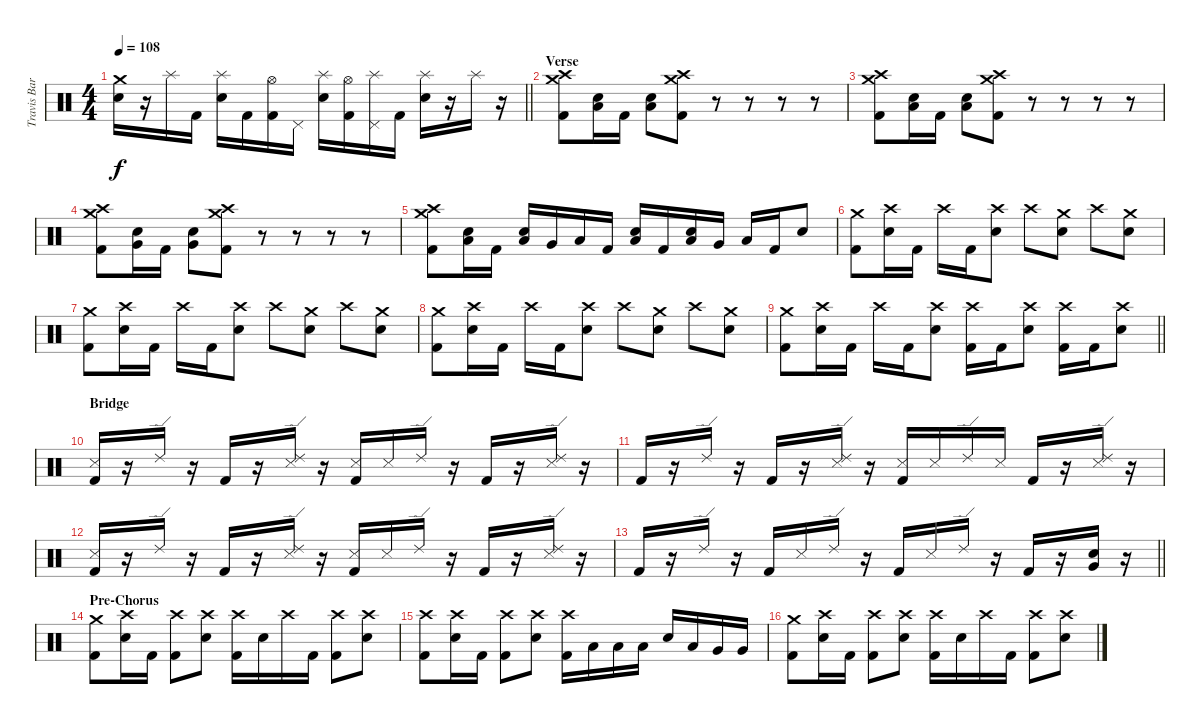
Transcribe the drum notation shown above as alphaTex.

\track ("Travis Barker" "Travis Bar") {instrument percussion}
\staff {score}
\articulation defaults
\ts (4 4)
\tempo 108
\clef neutral
\barLineRight lightlight
\ks c
("Crash medium (hit)" "Electric Snare (hit)").16{dy f} r.16 "Splash (hit)".16 "Kick (hit) 2".16 ("Splash (hit)" "Electric Snare (hit)").16 "Kick (hit) 2".16 ("Hi-Hat (open)" "Kick (hit) 2").16 "Pedal Hi-Hat (hit)".16 ("Splash (hit)" "Electric Snare (hit)").16 ("Hi-Hat (open)" "Kick (hit) 2").16 ("Pedal Hi-Hat (hit)" "Splash (hit)").16 "Kick (hit) 2".16 ("Splash (hit)" "Electric Snare (hit)").16 r.16 "Splash (hit)".16 r.16 |
\section ("" "Verse")
("Crash medium (hit)" "Crash high (hit)" "Kick (hit) 2").8 ("Electric Snare (hit)" "Low Tom (hit)").16 "Kick (hit) 2".16 ("Electric Snare (hit)" "Low Tom (hit)").8 ("Crash medium (hit)" "Crash high (hit)" "Kick (hit) 2").8 r.8 r.8 r.8 r.8 |
("Crash medium (hit)" "Crash high (hit)" "Kick (hit) 2").8 ("Electric Snare (hit)" "Low Tom (hit)").16 "Kick (hit) 2".16 ("Electric Snare (hit)" "Low Tom (hit)").8 ("Crash medium (hit)" "Crash high (hit)" "Kick (hit) 2").8 r.8 r.8 r.8 r.8 |
("Crash medium (hit)" "Crash high (hit)" "Kick (hit) 2").8 ("Electric Snare (hit)" "Very Low Tom (hit)").16 "Kick (hit) 2".16 ("Electric Snare (hit)" "Very Low Tom (hit)").8 ("Crash medium (hit)" "Crash high (hit)" "Kick (hit) 2").8 r.8 r.8 r.8 r.8 |
("Crash medium (hit)" "Crash high (hit)" "Kick (hit) 2").8 ("Electric Snare (hit)" "Low Tom (hit)").16 "Kick (hit) 2".16 ("Electric Snare (hit)" "Low Tom (hit)").16 "Very Low Tom (hit)".16 "Low Floor Tom (hit)".16 "Kick (hit) 2".16 ("Electric Snare (hit)" "Low Tom (hit)").16 "Kick (hit) 2".16 ("Electric Snare (hit)" "Low Tom (hit)").16 "Very Low Tom (hit)".16 "Low Floor Tom (hit)".16 "Kick (hit) 2".16 "Electric Snare (hit)".8 |
("Crash medium (hit)" "Kick (hit) 2").8 ("Crash high (hit)" "Electric Snare (hit)").16 "Kick (hit) 2".16 "Crash high (hit)".16 "Kick (hit) 2".16 ("Crash high (hit)" "Electric Snare (hit)").8 "Crash high (hit)".8 ("Crash medium (hit)" "Electric Snare (hit)").8 "Crash high (hit)".8 ("Crash medium (hit)" "Electric Snare (hit)").8 |
("Crash medium (hit)" "Kick (hit) 2").8 ("Crash high (hit)" "Electric Snare (hit)").16 "Kick (hit) 2".16 "Crash high (hit)".16 "Kick (hit) 2".16 ("Crash high (hit)" "Electric Snare (hit)").8 "Crash high (hit)".8 ("Crash medium (hit)" "Electric Snare (hit)").8 "Crash high (hit)".8 ("Crash medium (hit)" "Electric Snare (hit)").8 |
("Crash medium (hit)" "Kick (hit) 2").8 ("Crash high (hit)" "Electric Snare (hit)").16 "Kick (hit) 2".16 "Crash high (hit)".16 "Kick (hit) 2".16 ("Crash high (hit)" "Electric Snare (hit)").8 "Crash high (hit)".8 ("Crash medium (hit)" "Electric Snare (hit)").8 "Crash high (hit)".8 ("Crash medium (hit)" "Electric Snare (hit)").8 |
\barLineRight lightlight
("Crash medium (hit)" "Kick (hit) 2").8 ("Crash high (hit)" "Electric Snare (hit)").16 "Kick (hit) 2".16 "Crash high (hit)".16 "Kick (hit) 2".16 ("Crash high (hit)" "Electric Snare (hit)").8 ("Crash high (hit)" "Kick (hit) 2").16 "Kick (hit) 2".16 ("Crash high (hit)" "Electric Snare (hit)").8 ("Crash high (hit)" "Kick (hit) 2").16 "Kick (hit) 2".16 ("Crash high (hit)" "Electric Snare (hit)").8 |
\section ("" "Bridge")
("Snare (side stick) 3" "Kick (hit) 2").16 r.16 "Ride (edge) 2".16 r.16 "Kick (hit) 2".16 r.16 ("Ride (edge) 2" "Snare (side stick) 3").16 r.16 ("Snare (side stick) 3" "Kick (hit) 2").16 "Snare (side stick) 3".16 "Ride (edge) 2".16 r.16 "Kick (hit) 2".16 r.16 ("Ride (edge) 2" "Snare (side stick) 3").16 r.16 |
"Kick (hit) 2".16 r.16 "Ride (edge) 2".16 r.16 "Kick (hit) 2".16 r.16 ("Ride (edge) 2" "Snare (side stick) 3").16 r.16 ("Snare (side stick) 3" "Kick (hit) 2").16 "Snare (side stick) 3".16 "Ride (edge) 2".16 "Snare (side stick) 3".16 "Kick (hit) 2".16 r.16 ("Ride (edge) 2" "Snare (side stick) 3").16 r.16 |
("Snare (side stick) 3" "Kick (hit) 2").16 r.16 "Ride (edge) 2".16 r.16 "Kick (hit) 2".16 r.16 ("Ride (edge) 2" "Snare (side stick) 3").16 r.16 ("Snare (side stick) 3" "Kick (hit) 2").16 "Snare (side stick) 3".16 "Ride (edge) 2".16 r.16 "Kick (hit) 2".16 r.16 ("Ride (edge) 2" "Snare (side stick) 3").16 r.16 |
\barLineRight lightlight "Kick (hit) 2".16
r.16 "Ride (edge) 2".16 r.16 "Kick (hit) 2".16 "Snare (side stick) 3".16 "Ride (edge) 2".16 r.16 "Kick (hit) 2".16 "Snare (side stick) 3".16 "Ride (edge) 2".16 r.16 "Kick (hit) 2".16 r.16 ("Electric Snare (hit)" "Very Low Tom (hit)").16 r.16 |
\section ("" "Pre-Chorus")
("Crash medium (hit)" "Kick (hit) 2").8 ("Crash high (hit)" "Electric Snare (hit)").16 "Kick (hit) 2".16 ("Crash high (hit)" "Kick (hit) 2").8 ("Crash high (hit)" "Electric Snare (hit)").8 ("Crash high (hit)" "Kick (hit) 2").16 "Electric Snare (hit)".16 "Crash high (hit)".16 "Kick (hit) 2".16 ("Crash high (hit)" "Kick (hit) 2").8 ("Crash high (hit)" "Electric Snare (hit)").8 |
("Crash high (hit)" "Kick (hit) 2").8 ("Crash high (hit)" "Electric Snare (hit)").16 "Kick (hit) 2".16 ("Crash high (hit)" "Kick (hit) 2").8 ("Crash high (hit)" "Electric Snare (hit)").8 ("Crash high (hit)" "Kick (hit) 2").16 "Low Tom (hit)".16 "Low Tom (hit)".16 "Low Tom (hit)".16 "Electric Snare (hit)".16 "Low Tom (hit)".16 "Very Low Tom (hit)".16 "Very Low Tom (hit)".16 |
("Crash medium (hit)" "Kick (hit) 2").8 ("Crash high (hit)" "Electric Snare (hit)").16 "Kick (hit) 2".16 ("Crash high (hit)" "Kick (hit) 2").8 ("Crash high (hit)" "Electric Snare (hit)").8 ("Crash high (hit)" "Kick (hit) 2").16 "Electric Snare (hit)".16 "Crash high (hit)".16 "Kick (hit) 2".16 ("Crash high (hit)" "Kick (hit) 2").8 ("Crash high (hit)" "Electric Snare (hit)").8
